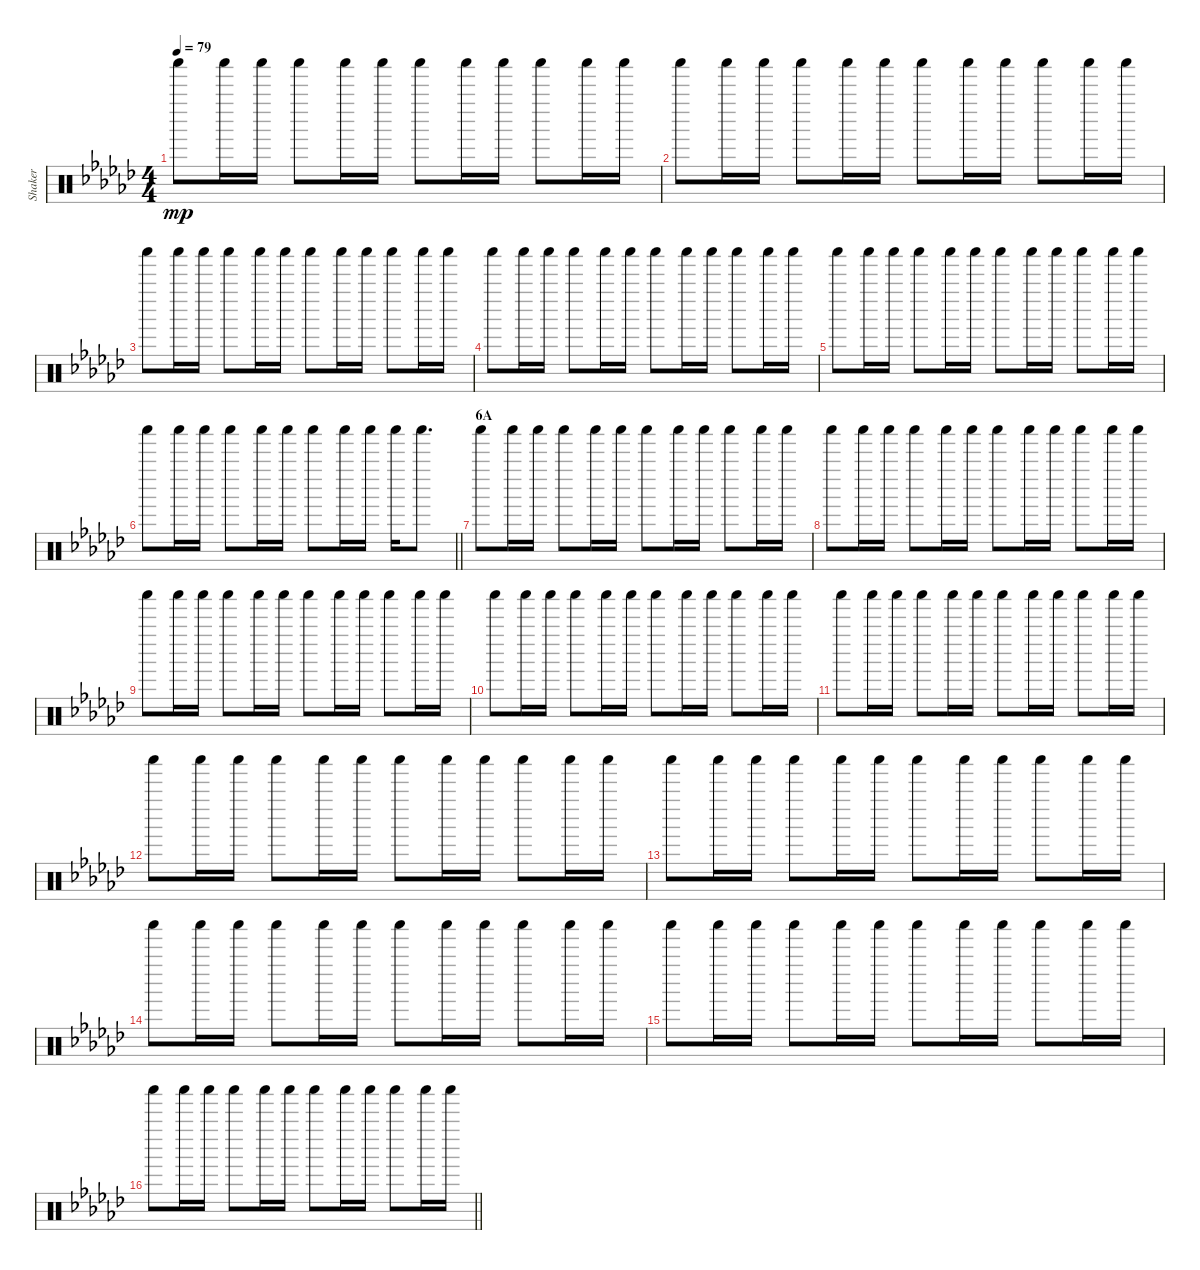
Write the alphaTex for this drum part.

\track ("Shaker" "Shaker") {instrument percussion}
\staff {score}
\articulation defaults
\ts (4 4)
\tempo 79
\clef neutral
\ks gb "Shaker (hit)".8{dy mp} "Shaker (hit)".16 "Shaker (hit)".16 "Shaker (hit)".8 "Shaker (hit)".16 "Shaker (hit)".16 "Shaker (hit)".8 "Shaker (hit)".16 "Shaker (hit)".16 "Shaker (hit)".8 "Shaker (hit)".16 "Shaker (hit)".16
|
"Shaker (hit)".8 "Shaker (hit)".16 "Shaker (hit)".16 "Shaker (hit)".8 "Shaker (hit)".16 "Shaker (hit)".16 "Shaker (hit)".8 "Shaker (hit)".16 "Shaker (hit)".16 "Shaker (hit)".8 "Shaker (hit)".16 "Shaker (hit)".16 |
"Shaker (hit)".8 "Shaker (hit)".16 "Shaker (hit)".16 "Shaker (hit)".8 "Shaker (hit)".16 "Shaker (hit)".16 "Shaker (hit)".8 "Shaker (hit)".16 "Shaker (hit)".16 "Shaker (hit)".8 "Shaker (hit)".16 "Shaker (hit)".16 |
"Shaker (hit)".8 "Shaker (hit)".16 "Shaker (hit)".16 "Shaker (hit)".8 "Shaker (hit)".16 "Shaker (hit)".16 "Shaker (hit)".8 "Shaker (hit)".16 "Shaker (hit)".16 "Shaker (hit)".8 "Shaker (hit)".16 "Shaker (hit)".16 |
"Shaker (hit)".8 "Shaker (hit)".16 "Shaker (hit)".16 "Shaker (hit)".8 "Shaker (hit)".16 "Shaker (hit)".16 "Shaker (hit)".8 "Shaker (hit)".16 "Shaker (hit)".16 "Shaker (hit)".8 "Shaker (hit)".16 "Shaker (hit)".16 |
\barLineRight lightlight "Shaker (hit)".8 "Shaker (hit)".16 "Shaker (hit)".16 "Shaker (hit)".8 "Shaker (hit)".16 "Shaker (hit)".16 "Shaker (hit)".8 "Shaker (hit)".16 "Shaker (hit)".16 "Shaker (hit)".16 "Shaker (hit)".8{d}
|
\section ("" "6A")
"Shaker (hit)".8 "Shaker (hit)".16 "Shaker (hit)".16 "Shaker (hit)".8 "Shaker (hit)".16 "Shaker (hit)".16 "Shaker (hit)".8 "Shaker (hit)".16 "Shaker (hit)".16 "Shaker (hit)".8 "Shaker (hit)".16 "Shaker (hit)".16 |
"Shaker (hit)".8 "Shaker (hit)".16 "Shaker (hit)".16 "Shaker (hit)".8 "Shaker (hit)".16 "Shaker (hit)".16 "Shaker (hit)".8 "Shaker (hit)".16 "Shaker (hit)".16 "Shaker (hit)".8 "Shaker (hit)".16 "Shaker (hit)".16 |
"Shaker (hit)".8 "Shaker (hit)".16 "Shaker (hit)".16 "Shaker (hit)".8 "Shaker (hit)".16 "Shaker (hit)".16 "Shaker (hit)".8 "Shaker (hit)".16 "Shaker (hit)".16 "Shaker (hit)".8 "Shaker (hit)".16 "Shaker (hit)".16 |
"Shaker (hit)".8 "Shaker (hit)".16 "Shaker (hit)".16 "Shaker (hit)".8 "Shaker (hit)".16 "Shaker (hit)".16 "Shaker (hit)".8 "Shaker (hit)".16 "Shaker (hit)".16 "Shaker (hit)".8 "Shaker (hit)".16 "Shaker (hit)".16 |
"Shaker (hit)".8 "Shaker (hit)".16 "Shaker (hit)".16 "Shaker (hit)".8 "Shaker (hit)".16 "Shaker (hit)".16 "Shaker (hit)".8 "Shaker (hit)".16 "Shaker (hit)".16 "Shaker (hit)".8 "Shaker (hit)".16 "Shaker (hit)".16 |
"Shaker (hit)".8 "Shaker (hit)".16 "Shaker (hit)".16 "Shaker (hit)".8 "Shaker (hit)".16 "Shaker (hit)".16 "Shaker (hit)".8 "Shaker (hit)".16 "Shaker (hit)".16 "Shaker (hit)".8 "Shaker (hit)".16 "Shaker (hit)".16 |
"Shaker (hit)".8 "Shaker (hit)".16 "Shaker (hit)".16 "Shaker (hit)".8 "Shaker (hit)".16 "Shaker (hit)".16 "Shaker (hit)".8 "Shaker (hit)".16 "Shaker (hit)".16 "Shaker (hit)".8 "Shaker (hit)".16 "Shaker (hit)".16 |
"Shaker (hit)".8 "Shaker (hit)".16 "Shaker (hit)".16 "Shaker (hit)".8 "Shaker (hit)".16 "Shaker (hit)".16 "Shaker (hit)".8 "Shaker (hit)".16 "Shaker (hit)".16 "Shaker (hit)".8 "Shaker (hit)".16 "Shaker (hit)".16 |
"Shaker (hit)".8 "Shaker (hit)".16 "Shaker (hit)".16 "Shaker (hit)".8 "Shaker (hit)".16 "Shaker (hit)".16 "Shaker (hit)".8 "Shaker (hit)".16 "Shaker (hit)".16 "Shaker (hit)".8 "Shaker (hit)".16 "Shaker (hit)".16 |
\barLineRight lightlight "Shaker (hit)".8 "Shaker (hit)".16 "Shaker (hit)".16 "Shaker (hit)".8 "Shaker (hit)".16 "Shaker (hit)".16 "Shaker (hit)".8 "Shaker (hit)".16 "Shaker (hit)".16 "Shaker (hit)".8 "Shaker (hit)".16 "Shaker (hit)".16
